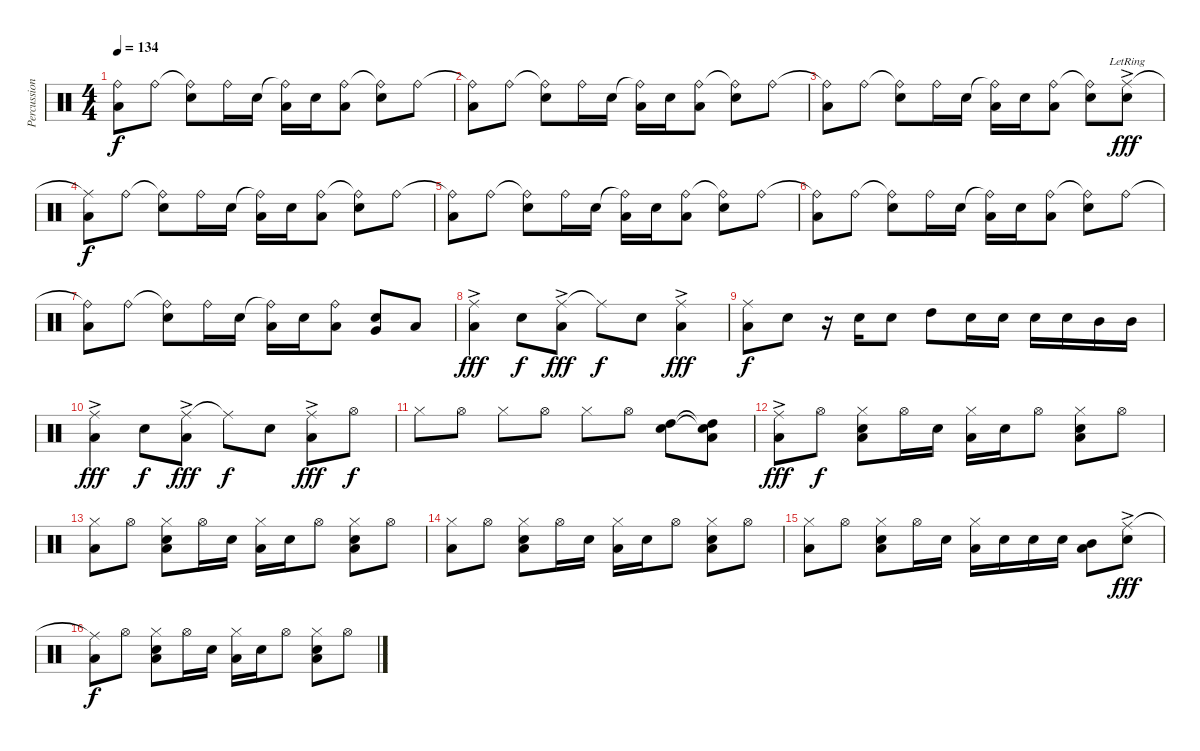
\track ("Percussion" "Percussion") {instrument percussion}
\staff {score}
\articulation defaults
\ts (4 4)
\tempo 134
\clef neutral
\ks c
("Ride (bell)"{t} "Low Floor Tom (hit)").8{dy f} "Ride (bell)".8 ("Ride (bell)"{t} "Snare (hit) 2").8 "Ride (bell)".16 "Snare (hit) 2".16 ("Ride (bell)"{t} "Low Floor Tom (hit)").16 "Snare (hit) 2".16 ("Ride (bell)" "Low Floor Tom (hit)").8 ("Ride (bell)"{t} "Snare (hit) 2").8 "Ride (bell)".8 |
("Ride (bell)"{t} "Low Floor Tom (hit)").8 "Ride (bell)".8 ("Ride (bell)"{t} "Snare (hit) 2").8 "Ride (bell)".16 "Snare (hit) 2".16 ("Ride (bell)"{t} "Low Floor Tom (hit)").16 "Snare (hit) 2".16 ("Ride (bell)" "Low Floor Tom (hit)").8 ("Ride (bell)"{t} "Snare (hit) 2").8 "Ride (bell)".8 |
("Ride (bell)"{t} "Low Floor Tom (hit)").8 "Ride (bell)".8 ("Ride (bell)"{t} "Snare (hit) 2").8 "Ride (bell)".16 "Snare (hit) 2".16 ("Ride (bell)"{t} "Low Floor Tom (hit)").16 "Snare (hit) 2".16 ("Ride (bell)" "Low Floor Tom (hit)").8 ("Ride (bell)"{t} "Snare (hit) 2").8 ("Ride (middle)"{ac lr} "Snare (hit) 2").8{dy fff} |
("Ride (middle)"{t} "Low Floor Tom (hit)").8{dy f} "Ride (bell)".8 ("Ride (bell)"{t} "Snare (hit) 2").8 "Ride (bell)".16 "Snare (hit) 2".16 ("Ride (bell)"{t} "Low Floor Tom (hit)").16 "Snare (hit) 2".16 ("Ride (bell)" "Low Floor Tom (hit)").8 ("Ride (bell)"{t} "Snare (hit) 2").8 "Ride (bell)".8 |
("Ride (bell)"{t} "Low Floor Tom (hit)").8 "Ride (bell)".8 ("Ride (bell)"{t} "Snare (hit) 2").8 "Ride (bell)".16 "Snare (hit) 2".16 ("Ride (bell)"{t} "Low Floor Tom (hit)").16 "Snare (hit) 2".16 ("Ride (bell)" "Low Floor Tom (hit)").8 ("Ride (bell)"{t} "Snare (hit) 2").8 "Ride (bell)".8 |
("Ride (bell)"{t} "Low Floor Tom (hit)").8 "Ride (bell)".8 ("Ride (bell)"{t} "Snare (hit) 2").8 "Ride (bell)".16 "Snare (hit) 2".16 ("Ride (bell)"{t} "Low Floor Tom (hit)").16 "Snare (hit) 2".16 ("Ride (bell)" "Low Floor Tom (hit)").8 ("Ride (bell)"{t} "Snare (hit) 2").8 "Ride (bell)".8 |
("Ride (bell)"{t} "Low Floor Tom (hit)").8 "Ride (bell)".8 ("Ride (bell)"{t} "Snare (hit) 2").8 "Ride (bell)".16 "Snare (hit) 2".16 ("Ride (bell)"{t} "Low Floor Tom (hit)").16 "Snare (hit) 2".16 ("Ride (bell)" "Low Floor Tom (hit)").8 ("Snare (hit) 2" "Very Low Tom (hit)").8 "Low Floor Tom (hit)".8 |
("Ride (middle)"{ac} "Low Floor Tom (hit)").4{dy fff} "Snare (hit) 2".8{dy f} ("Ride (middle)"{ac} "Low Floor Tom (hit)").8{dy fff} "Ride (middle)"{t}.8{dy f} "Snare (hit) 2".8 ("Ride (middle)"{ac} "Low Floor Tom (hit)").4{dy fff} |
("Ride (middle)" "Low Floor Tom (hit)").8{dy f} "Snare (hit) 2".8 r.16 "Snare (hit) 2".16 "Snare (hit) 2".8 "High Tom (hit)".8 "Snare (hit) 2".16 "Snare (hit) 2".16 "Snare (hit) 2".16 "Snare (hit) 2".16 "Mid Tom (hit)".16 "Mid Tom (hit)".16 |
("Ride (middle)"{ac} "Low Floor Tom (hit)").4{dy fff} "Snare (hit) 2".8{dy f} ("Ride (middle)"{ac} "Low Floor Tom (hit)").8{dy fff} "Ride (middle)"{t}.8{dy f} "Snare (hit) 2".8 ("Ride (middle)"{ac} "Low Floor Tom (hit)").8{dy fff} "Hi-Hat (open)".8{dy f} |
"Hi-Hat (closed)".8 "Hi-Hat (open)".8 "Hi-Hat (closed)".8 "Hi-Hat (open)".8 "Hi-Hat (closed)".8 "Hi-Hat (open)".8 ("High Tom (hit)" "Snare (hit) 2").8 ("High Tom (hit)"{t} "Snare (hit) 2"{t} "Low Floor Tom (hit)").8 |
("Ride (middle)"{ac} "Low Floor Tom (hit)").8{dy fff} "Hi-Hat (open)".8{dy f} ("Hi-Hat (closed)" "Snare (hit) 2" "Low Floor Tom (hit)").8 "Hi-Hat (open)".16 "Snare (hit) 2".16 ("Hi-Hat (closed)" "Low Floor Tom (hit)").16 "Snare (hit) 2".16 "Hi-Hat (open)".8 ("Hi-Hat (closed)" "Snare (hit) 2" "Low Floor Tom (hit)").8 "Hi-Hat (open)".8 |
("Hi-Hat (closed)" "Low Floor Tom (hit)").8 "Hi-Hat (open)".8 ("Hi-Hat (closed)" "Snare (hit) 2" "Low Floor Tom (hit)").8 "Hi-Hat (open)".16 "Snare (hit) 2".16 ("Hi-Hat (closed)" "Low Floor Tom (hit)").16 "Snare (hit) 2".16 "Hi-Hat (open)".8 ("Hi-Hat (closed)" "Snare (hit) 2" "Low Floor Tom (hit)").8 "Hi-Hat (open)".8 |
("Hi-Hat (closed)" "Low Floor Tom (hit)").8 "Hi-Hat (open)".8 ("Hi-Hat (closed)" "Snare (hit) 2" "Low Floor Tom (hit)").8 "Hi-Hat (open)".16 "Snare (hit) 2".16 ("Hi-Hat (closed)" "Low Floor Tom (hit)").16 "Snare (hit) 2".16 "Hi-Hat (open)".8 ("Hi-Hat (closed)" "Snare (hit) 2" "Low Floor Tom (hit)").8 "Hi-Hat (open)".8 |
("Hi-Hat (closed)" "Low Floor Tom (hit)").8 "Hi-Hat (open)".8 ("Hi-Hat (closed)" "Snare (hit) 2" "Low Floor Tom (hit)").8 "Hi-Hat (open)".16 "Snare (hit) 2".16 ("Hi-Hat (closed)" "Low Floor Tom (hit)").16 "Snare (hit) 2".16 "Snare (hit) 2".16 "Snare (hit) 2".16 ("Mid Tom (hit)" "Low Floor Tom (hit)").8 ("Ride (middle)"{ac} "Snare (hit) 2").8{dy fff} |
("Ride (middle)"{t} "Low Floor Tom (hit)").8{dy f} "Hi-Hat (open)".8 ("Hi-Hat (closed)" "Snare (hit) 2" "Low Floor Tom (hit)").8 "Hi-Hat (open)".16 "Snare (hit) 2".16 ("Hi-Hat (closed)" "Low Floor Tom (hit)").16 "Snare (hit) 2".16 "Hi-Hat (open)".8 ("Hi-Hat (closed)" "Snare (hit) 2" "Low Floor Tom (hit)").8 "Hi-Hat (open)".8
